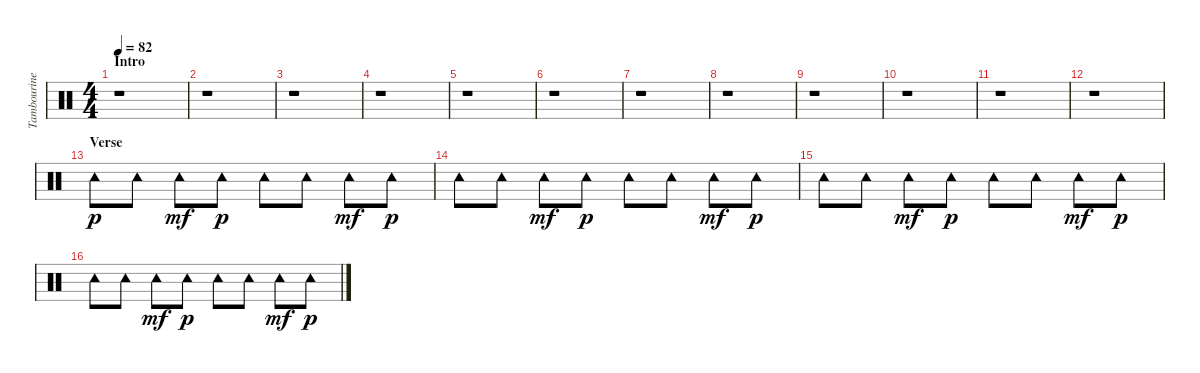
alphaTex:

\track ("Tambourine" "Tambourine") {instrument percussion}
\staff {score}
\articulation defaults
\ts (4 4)
\section ("" "Intro")
\tempo 82
\clef neutral
\ks c
r.1{dy p} |
r.1 |
r.1 |
r.1 |
r.1 |
r.1 |
r.1 |
r.1 |
r.1 |
r.1 |
r.1 |
r.1 |
\section ("" "Verse")
"Tambourine (hit)".8 "Tambourine (hit)".8 "Tambourine (hit)".8{dy mf} "Tambourine (hit)".8{dy p} "Tambourine (hit)".8 "Tambourine (hit)".8 "Tambourine (hit)".8{dy mf} "Tambourine (hit)".8{dy p} |
"Tambourine (hit)".8 "Tambourine (hit)".8 "Tambourine (hit)".8{dy mf} "Tambourine (hit)".8{dy p} "Tambourine (hit)".8 "Tambourine (hit)".8 "Tambourine (hit)".8{dy mf} "Tambourine (hit)".8{dy p} |
"Tambourine (hit)".8 "Tambourine (hit)".8 "Tambourine (hit)".8{dy mf} "Tambourine (hit)".8{dy p} "Tambourine (hit)".8 "Tambourine (hit)".8 "Tambourine (hit)".8{dy mf} "Tambourine (hit)".8{dy p} |
"Tambourine (hit)".8 "Tambourine (hit)".8 "Tambourine (hit)".8{dy mf} "Tambourine (hit)".8{dy p} "Tambourine (hit)".8 "Tambourine (hit)".8 "Tambourine (hit)".8{dy mf} "Tambourine (hit)".8{dy p}
